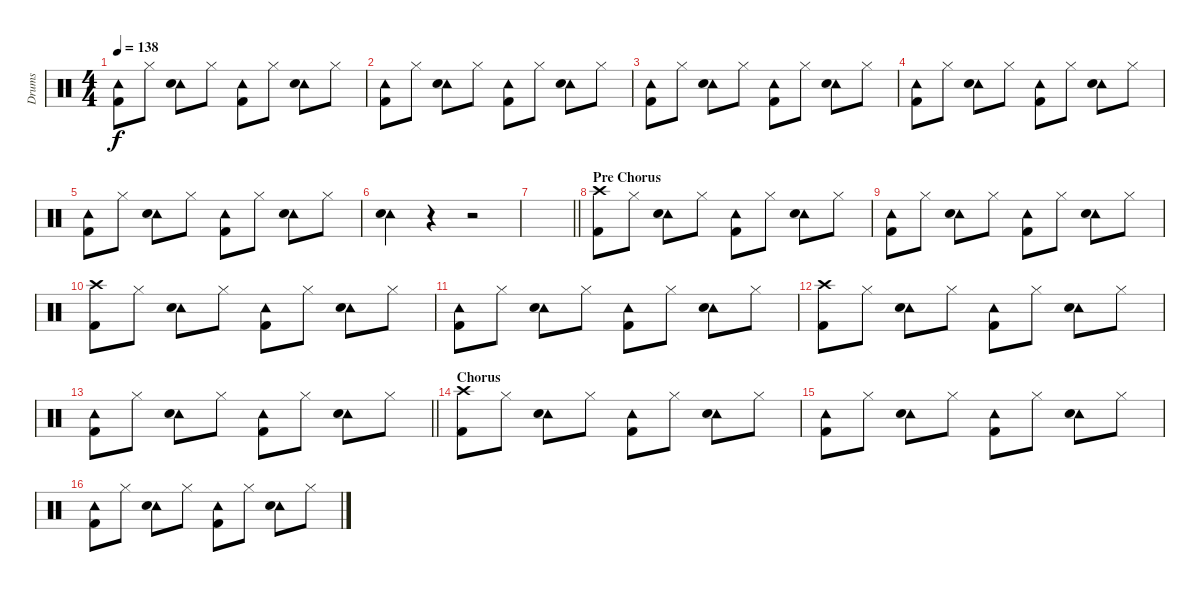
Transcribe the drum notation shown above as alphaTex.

\track ("Drums" "Drums") {instrument percussion}
\staff {score}
\articulation defaults
\ts (4 4)
\tempo 138
\clef neutral
\ks c
("Tambourine (hit)" "Kick (hit) 2").8{dy f} "Hi-Hat (closed)".8 ("Tambourine (hit)" "Snare (hit) 2").8 "Hi-Hat (closed)".8 ("Tambourine (hit)" "Kick (hit) 2").8 "Hi-Hat (closed)".8 ("Tambourine (hit)" "Snare (hit) 2").8 "Hi-Hat (closed)".8 |
("Tambourine (hit)" "Kick (hit) 2").8 "Hi-Hat (closed)".8 ("Tambourine (hit)" "Snare (hit) 2").8 "Hi-Hat (closed)".8 ("Tambourine (hit)" "Kick (hit) 2").8 "Hi-Hat (closed)".8 ("Tambourine (hit)" "Snare (hit) 2").8 "Hi-Hat (closed)".8 |
("Tambourine (hit)" "Kick (hit) 2").8 "Hi-Hat (closed)".8 ("Tambourine (hit)" "Snare (hit) 2").8 "Hi-Hat (closed)".8 ("Tambourine (hit)" "Kick (hit) 2").8 "Hi-Hat (closed)".8 ("Tambourine (hit)" "Snare (hit) 2").8 "Hi-Hat (closed)".8 |
("Tambourine (hit)" "Kick (hit) 2").8 "Hi-Hat (closed)".8 ("Tambourine (hit)" "Snare (hit) 2").8 "Hi-Hat (closed)".8 ("Tambourine (hit)" "Kick (hit) 2").8 "Hi-Hat (closed)".8 ("Tambourine (hit)" "Snare (hit) 2").8 "Hi-Hat (closed)".8 |
("Tambourine (hit)" "Kick (hit) 2").8 "Hi-Hat (closed)".8 ("Tambourine (hit)" "Snare (hit) 2").8 "Hi-Hat (closed)".8 ("Tambourine (hit)" "Kick (hit) 2").8 "Hi-Hat (closed)".8 ("Tambourine (hit)" "Snare (hit) 2").8 "Hi-Hat (closed)".8 |
("Tambourine (hit)" "Snare (hit) 2").4 r.4 r.2 |
\barLineRight lightlight
|
\section ("" "Pre Chorus")
("Crash high (hit)" "Kick (hit) 2").8 "Hi-Hat (closed)".8 ("Tambourine (hit)" "Snare (hit) 2").8 "Hi-Hat (closed)".8 ("Tambourine (hit)" "Kick (hit) 2").8 "Hi-Hat (closed)".8 ("Tambourine (hit)" "Snare (hit) 2").8 "Hi-Hat (closed)".8 |
("Tambourine (hit)" "Kick (hit) 2").8 "Hi-Hat (closed)".8 ("Tambourine (hit)" "Snare (hit) 2").8 "Hi-Hat (closed)".8 ("Tambourine (hit)" "Kick (hit) 2").8 "Hi-Hat (closed)".8 ("Tambourine (hit)" "Snare (hit) 2").8 "Hi-Hat (closed)".8 |
("Crash high (hit)" "Kick (hit) 2").8 "Hi-Hat (closed)".8 ("Tambourine (hit)" "Snare (hit) 2").8 "Hi-Hat (closed)".8 ("Tambourine (hit)" "Kick (hit) 2").8 "Hi-Hat (closed)".8 ("Tambourine (hit)" "Snare (hit) 2").8 "Hi-Hat (closed)".8 |
("Tambourine (hit)" "Kick (hit) 2").8 "Hi-Hat (closed)".8 ("Tambourine (hit)" "Snare (hit) 2").8 "Hi-Hat (closed)".8 ("Tambourine (hit)" "Kick (hit) 2").8 "Hi-Hat (closed)".8 ("Tambourine (hit)" "Snare (hit) 2").8 "Hi-Hat (closed)".8 |
("Crash high (hit)" "Kick (hit) 2").8 "Hi-Hat (closed)".8 ("Tambourine (hit)" "Snare (hit) 2").8 "Hi-Hat (closed)".8 ("Tambourine (hit)" "Kick (hit) 2").8 "Hi-Hat (closed)".8 ("Tambourine (hit)" "Snare (hit) 2").8 "Hi-Hat (closed)".8 |
\barLineRight lightlight
("Tambourine (hit)" "Kick (hit) 2").8 "Hi-Hat (closed)".8 ("Tambourine (hit)" "Snare (hit) 2").8 "Hi-Hat (closed)".8 ("Tambourine (hit)" "Kick (hit) 2").8 "Hi-Hat (closed)".8 ("Tambourine (hit)" "Snare (hit) 2").8 "Hi-Hat (closed)".8 |
\section ("" "Chorus")
("Crash high (hit)" "Kick (hit) 2").8 "Hi-Hat (closed)".8 ("Tambourine (hit)" "Snare (hit) 2").8 "Hi-Hat (closed)".8 ("Tambourine (hit)" "Kick (hit) 2").8 "Hi-Hat (closed)".8 ("Tambourine (hit)" "Snare (hit) 2").8 "Hi-Hat (closed)".8 |
("Tambourine (hit)" "Kick (hit) 2").8 "Hi-Hat (closed)".8 ("Tambourine (hit)" "Snare (hit) 2").8 "Hi-Hat (closed)".8 ("Tambourine (hit)" "Kick (hit) 2").8 "Hi-Hat (closed)".8 ("Tambourine (hit)" "Snare (hit) 2").8 "Hi-Hat (closed)".8 |
("Tambourine (hit)" "Kick (hit) 2").8 "Hi-Hat (closed)".8 ("Tambourine (hit)" "Snare (hit) 2").8 "Hi-Hat (closed)".8 ("Tambourine (hit)" "Kick (hit) 2").8 "Hi-Hat (closed)".8 ("Tambourine (hit)" "Snare (hit) 2").8 "Hi-Hat (closed)".8
